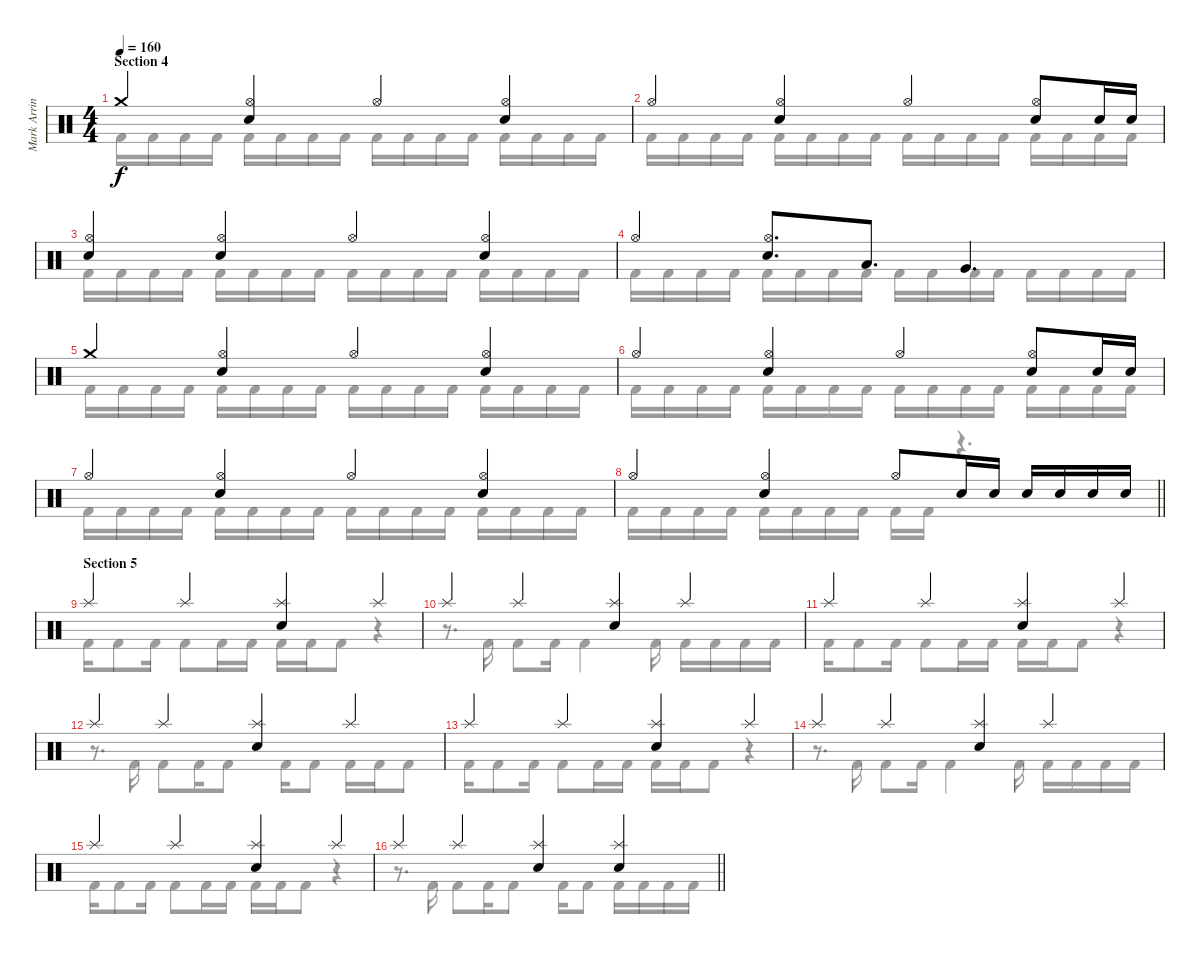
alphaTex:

\track ("Mark Arrington – drums" "Mark Arrin") {instrument percussion}
\staff {score}
\articulation defaults
\voice
\ts (4 4)
\section ("" "Section 4")
\tempo 160
\clef neutral
\ks c "Crash medium (hit)".4{dy f}
("Hi-Hat (open)" "Electric Snare (hit)").4 "Hi-Hat (open)".4 ("Hi-Hat (open)" "Electric Snare (hit)").4 |
"Hi-Hat (open)".4 ("Hi-Hat (open)" "Electric Snare (hit)").4 "Hi-Hat (open)".4 ("Hi-Hat (open)" "Electric Snare (hit)").8 "Electric Snare (hit)".16 "Electric Snare (hit)".16 |
("Hi-Hat (open)" "Electric Snare (hit)").4 ("Hi-Hat (open)" "Electric Snare (hit)").4 "Hi-Hat (open)".4 ("Hi-Hat (open)" "Electric Snare (hit)").4 |
"Hi-Hat (open)".4 ("Hi-Hat (open)" "Electric Snare (hit)").8{d} "Low Tom (hit)".8{d} "Very Low Tom (hit)".4{d} |
"Crash medium (hit)".4 ("Hi-Hat (open)" "Electric Snare (hit)").4 "Hi-Hat (open)".4 ("Hi-Hat (open)" "Electric Snare (hit)").4 |
"Hi-Hat (open)".4 ("Hi-Hat (open)" "Electric Snare (hit)").4 "Hi-Hat (open)".4 ("Hi-Hat (open)" "Electric Snare (hit)").8 "Electric Snare (hit)".16 "Electric Snare (hit)".16 |
"Hi-Hat (open)".4 ("Hi-Hat (open)" "Electric Snare (hit)").4 "Hi-Hat (open)".4 ("Hi-Hat (open)" "Electric Snare (hit)").4 |
\barLineRight lightlight "Hi-Hat (open)".4
("Hi-Hat (open)" "Electric Snare (hit)").4 "Hi-Hat (open)".8 "Electric Snare (hit)".16 "Electric Snare (hit)".16 "Electric Snare (hit)".16 "Electric Snare (hit)".16 "Electric Snare (hit)".16 "Electric Snare (hit)".16 |
\section ("" "Section 5")
"Splash (hit)".4 "Splash (hit)".4 ("Splash (hit)" "Electric Snare (hit)").4 "Splash (hit)".4 |
"Splash (hit)".4 "Splash (hit)".4 ("Splash (hit)" "Electric Snare (hit)").4 "Splash (hit)".4 |
"Splash (hit)".4 "Splash (hit)".4 ("Splash (hit)" "Electric Snare (hit)").4 "Splash (hit)".4 |
"Splash (hit)".4 "Splash (hit)".4 ("Splash (hit)" "Electric Snare (hit)").4 "Splash (hit)".4 |
"Splash (hit)".4 "Splash (hit)".4 ("Splash (hit)" "Electric Snare (hit)").4 "Splash (hit)".4 |
"Splash (hit)".4 "Splash (hit)".4 ("Splash (hit)" "Electric Snare (hit)").4 "Splash (hit)".4 |
"Splash (hit)".4 "Splash (hit)".4 ("Splash (hit)" "Electric Snare (hit)").4 "Splash (hit)".4 |
\barLineRight lightlight "Splash (hit)".4 "Splash (hit)".4
("Splash (hit)" "Electric Snare (hit)").4 ("Splash (hit)" "Electric Snare (hit)").4
\voice
\clef neutral
\ottava regular
\simile none
\ks c "Kick (hit) 2".16{dy f} "Kick (hit) 2".16 "Kick (hit) 2".16 "Kick (hit) 2".16 "Kick (hit) 2".16 "Kick (hit) 2".16 "Kick (hit) 2".16 "Kick (hit) 2".16 "Kick (hit) 2".16 "Kick (hit) 2".16 "Kick (hit) 2".16 "Kick (hit) 2".16 "Kick (hit) 2".16 "Kick (hit) 2".16 "Kick (hit) 2".16 "Kick (hit) 2".16
|
"Kick (hit) 2".16 "Kick (hit) 2".16 "Kick (hit) 2".16 "Kick (hit) 2".16 "Kick (hit) 2".16 "Kick (hit) 2".16 "Kick (hit) 2".16 "Kick (hit) 2".16 "Kick (hit) 2".16 "Kick (hit) 2".16 "Kick (hit) 2".16 "Kick (hit) 2".16 "Kick (hit) 2".16 "Kick (hit) 2".16 "Kick (hit) 2".16 "Kick (hit) 2".16 |
"Kick (hit) 2".16 "Kick (hit) 2".16 "Kick (hit) 2".16 "Kick (hit) 2".16 "Kick (hit) 2".16 "Kick (hit) 2".16 "Kick (hit) 2".16 "Kick (hit) 2".16 "Kick (hit) 2".16 "Kick (hit) 2".16 "Kick (hit) 2".16 "Kick (hit) 2".16 "Kick (hit) 2".16 "Kick (hit) 2".16 "Kick (hit) 2".16 "Kick (hit) 2".16 |
"Kick (hit) 2".16 "Kick (hit) 2".16 "Kick (hit) 2".16 "Kick (hit) 2".16 "Kick (hit) 2".16 "Kick (hit) 2".16 "Kick (hit) 2".16 "Kick (hit) 2".16 "Kick (hit) 2".16 "Kick (hit) 2".16 "Kick (hit) 2".16 "Kick (hit) 2".16 "Kick (hit) 2".16 "Kick (hit) 2".16 "Kick (hit) 2".16 "Kick (hit) 2".16 |
"Kick (hit) 2".16 "Kick (hit) 2".16 "Kick (hit) 2".16 "Kick (hit) 2".16 "Kick (hit) 2".16 "Kick (hit) 2".16 "Kick (hit) 2".16 "Kick (hit) 2".16 "Kick (hit) 2".16 "Kick (hit) 2".16 "Kick (hit) 2".16 "Kick (hit) 2".16 "Kick (hit) 2".16 "Kick (hit) 2".16 "Kick (hit) 2".16 "Kick (hit) 2".16 |
"Kick (hit) 2".16 "Kick (hit) 2".16 "Kick (hit) 2".16 "Kick (hit) 2".16 "Kick (hit) 2".16 "Kick (hit) 2".16 "Kick (hit) 2".16 "Kick (hit) 2".16 "Kick (hit) 2".16 "Kick (hit) 2".16 "Kick (hit) 2".16 "Kick (hit) 2".16 "Kick (hit) 2".16 "Kick (hit) 2".16 "Kick (hit) 2".16 "Kick (hit) 2".16 |
"Kick (hit) 2".16 "Kick (hit) 2".16 "Kick (hit) 2".16 "Kick (hit) 2".16 "Kick (hit) 2".16 "Kick (hit) 2".16 "Kick (hit) 2".16 "Kick (hit) 2".16 "Kick (hit) 2".16 "Kick (hit) 2".16 "Kick (hit) 2".16 "Kick (hit) 2".16 "Kick (hit) 2".16 "Kick (hit) 2".16 "Kick (hit) 2".16 "Kick (hit) 2".16 |
\barLineRight lightlight "Kick (hit) 2".16 "Kick (hit) 2".16 "Kick (hit) 2".16 "Kick (hit) 2".16 "Kick (hit) 2".16 "Kick (hit) 2".16 "Kick (hit) 2".16 "Kick (hit) 2".16 "Kick (hit) 2".16 "Kick (hit) 2".16
r.4{d} |
"Kick (hit) 2".16 "Kick (hit) 2".8 "Kick (hit) 2".16 "Kick (hit) 2".8 "Kick (hit) 2".16 "Kick (hit) 2".16 "Kick (hit) 2".16 "Kick (hit) 2".16 "Kick (hit) 2".8 r.4 |
r.8{d} "Kick (hit) 2".16 "Kick (hit) 2".8 "Kick (hit) 2".16 "Kick (hit) 2".4 "Kick (hit) 2".16 "Kick (hit) 2".16 "Kick (hit) 2".16 "Kick (hit) 2".16 "Kick (hit) 2".16 |
"Kick (hit) 2".16 "Kick (hit) 2".8 "Kick (hit) 2".16 "Kick (hit) 2".8 "Kick (hit) 2".16 "Kick (hit) 2".16 "Kick (hit) 2".16 "Kick (hit) 2".16 "Kick (hit) 2".8 r.4 |
r.8{d} "Kick (hit) 2".16 "Kick (hit) 2".8 "Kick (hit) 2".16 "Kick (hit) 2".8 "Kick (hit) 2".16 "Kick (hit) 2".8 "Kick (hit) 2".16 "Kick (hit) 2".16 "Kick (hit) 2".8 |
"Kick (hit) 2".16 "Kick (hit) 2".8 "Kick (hit) 2".16 "Kick (hit) 2".8 "Kick (hit) 2".16 "Kick (hit) 2".16 "Kick (hit) 2".16 "Kick (hit) 2".16 "Kick (hit) 2".8 r.4 |
r.8{d} "Kick (hit) 2".16 "Kick (hit) 2".8 "Kick (hit) 2".16 "Kick (hit) 2".4 "Kick (hit) 2".16 "Kick (hit) 2".16 "Kick (hit) 2".16 "Kick (hit) 2".16 "Kick (hit) 2".16 |
"Kick (hit) 2".16 "Kick (hit) 2".8 "Kick (hit) 2".16 "Kick (hit) 2".8 "Kick (hit) 2".16 "Kick (hit) 2".16 "Kick (hit) 2".16 "Kick (hit) 2".16 "Kick (hit) 2".8 r.4 |
\barLineRight lightlight
r.8{d} "Kick (hit) 2".16 "Kick (hit) 2".8 "Kick (hit) 2".16 "Kick (hit) 2".8 "Kick (hit) 2".16 "Kick (hit) 2".8 "Kick (hit) 2".16 "Kick (hit) 2".16 "Kick (hit) 2".16 "Kick (hit) 2".16
